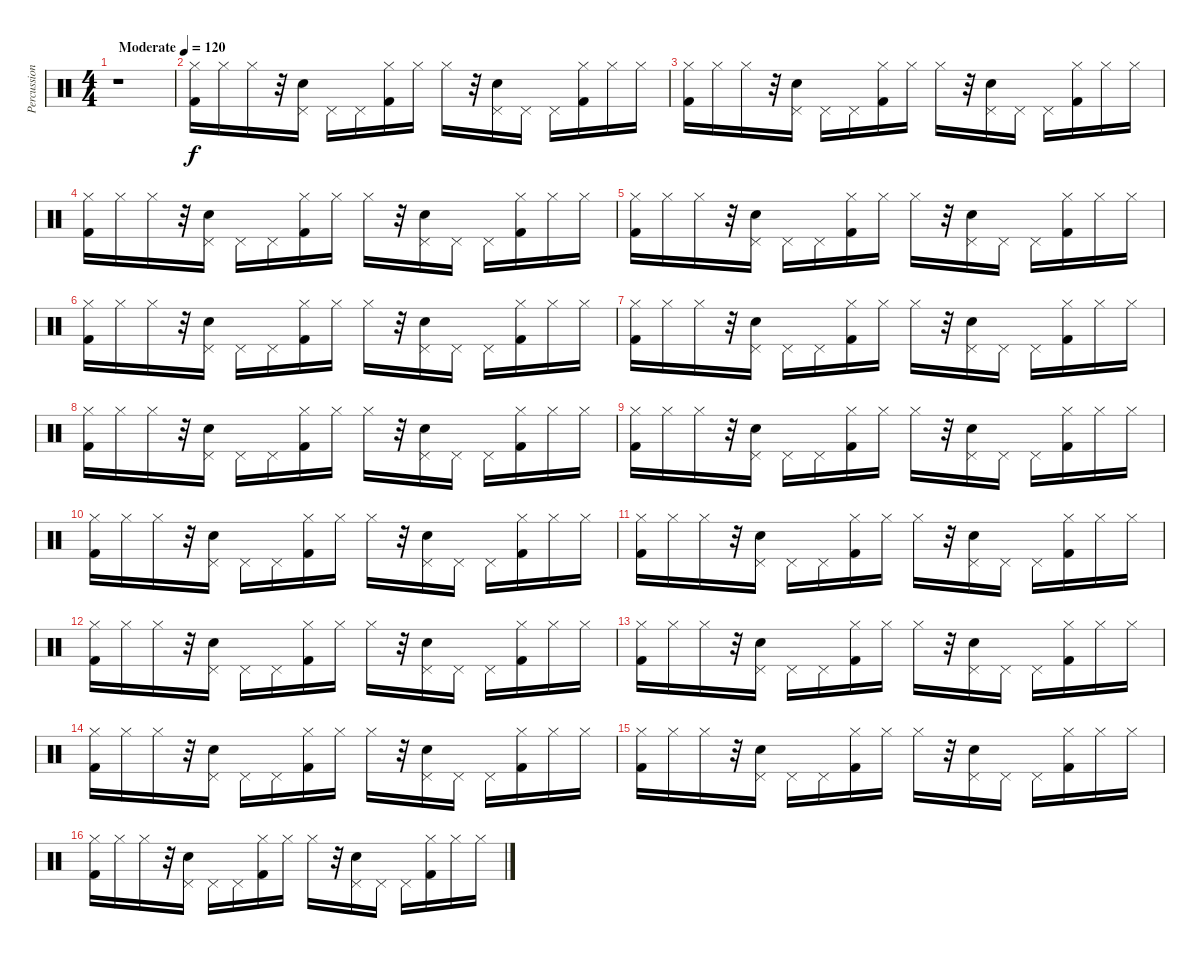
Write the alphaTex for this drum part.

\track ("Percussioni" "Percussion") {instrument percussion}
\staff {score}
\articulation defaults
\ts (4 4)
\tempo (120 "Moderate")
\clef neutral
\ks c
r.1{dy f} |
("Hi-Hat (closed)" "Kick (hit) 2").16 "Hi-Hat (closed)".16 "Hi-Hat (closed)".16 r.32 ("Pedal Hi-Hat (hit)" "Electric Snare (hit)").16 "Pedal Hi-Hat (hit)".16 "Pedal Hi-Hat (hit)".16 ("Hi-Hat (closed)" "Kick (hit) 2").16 "Hi-Hat (closed)".16 "Hi-Hat (closed)".16 r.32 ("Pedal Hi-Hat (hit)" "Electric Snare (hit)").16 "Pedal Hi-Hat (hit)".16 "Pedal Hi-Hat (hit)".16 ("Hi-Hat (closed)" "Kick (hit) 2").16 "Hi-Hat (closed)".16 "Hi-Hat (closed)".16 |
("Hi-Hat (closed)" "Kick (hit) 2").16 "Hi-Hat (closed)".16 "Hi-Hat (closed)".16 r.32 ("Pedal Hi-Hat (hit)" "Electric Snare (hit)").16 "Pedal Hi-Hat (hit)".16 "Pedal Hi-Hat (hit)".16 ("Hi-Hat (closed)" "Kick (hit) 2").16 "Hi-Hat (closed)".16 "Hi-Hat (closed)".16 r.32 ("Pedal Hi-Hat (hit)" "Electric Snare (hit)").16 "Pedal Hi-Hat (hit)".16 "Pedal Hi-Hat (hit)".16 ("Hi-Hat (closed)" "Kick (hit) 2").16 "Hi-Hat (closed)".16 "Hi-Hat (closed)".16 |
("Hi-Hat (closed)" "Kick (hit) 2").16 "Hi-Hat (closed)".16 "Hi-Hat (closed)".16 r.32 ("Pedal Hi-Hat (hit)" "Electric Snare (hit)").16 "Pedal Hi-Hat (hit)".16 "Pedal Hi-Hat (hit)".16 ("Hi-Hat (closed)" "Kick (hit) 2").16 "Hi-Hat (closed)".16 "Hi-Hat (closed)".16 r.32 ("Pedal Hi-Hat (hit)" "Electric Snare (hit)").16 "Pedal Hi-Hat (hit)".16 "Pedal Hi-Hat (hit)".16 ("Hi-Hat (closed)" "Kick (hit) 2").16 "Hi-Hat (closed)".16 "Hi-Hat (closed)".16 |
("Hi-Hat (closed)" "Kick (hit) 2").16 "Hi-Hat (closed)".16 "Hi-Hat (closed)".16 r.32 ("Pedal Hi-Hat (hit)" "Electric Snare (hit)").16 "Pedal Hi-Hat (hit)".16 "Pedal Hi-Hat (hit)".16 ("Hi-Hat (closed)" "Kick (hit) 2").16 "Hi-Hat (closed)".16 "Hi-Hat (closed)".16 r.32 ("Pedal Hi-Hat (hit)" "Electric Snare (hit)").16 "Pedal Hi-Hat (hit)".16 "Pedal Hi-Hat (hit)".16 ("Hi-Hat (closed)" "Kick (hit) 2").16 "Hi-Hat (closed)".16 "Hi-Hat (closed)".16 |
("Hi-Hat (closed)" "Kick (hit) 2").16 "Hi-Hat (closed)".16 "Hi-Hat (closed)".16 r.32 ("Pedal Hi-Hat (hit)" "Electric Snare (hit)").16 "Pedal Hi-Hat (hit)".16 "Pedal Hi-Hat (hit)".16 ("Hi-Hat (closed)" "Kick (hit) 2").16 "Hi-Hat (closed)".16 "Hi-Hat (closed)".16 r.32 ("Pedal Hi-Hat (hit)" "Electric Snare (hit)").16 "Pedal Hi-Hat (hit)".16 "Pedal Hi-Hat (hit)".16 ("Hi-Hat (closed)" "Kick (hit) 2").16 "Hi-Hat (closed)".16 "Hi-Hat (closed)".16 |
("Hi-Hat (closed)" "Kick (hit) 2").16 "Hi-Hat (closed)".16 "Hi-Hat (closed)".16 r.32 ("Pedal Hi-Hat (hit)" "Electric Snare (hit)").16 "Pedal Hi-Hat (hit)".16 "Pedal Hi-Hat (hit)".16 ("Hi-Hat (closed)" "Kick (hit) 2").16 "Hi-Hat (closed)".16 "Hi-Hat (closed)".16 r.32 ("Pedal Hi-Hat (hit)" "Electric Snare (hit)").16 "Pedal Hi-Hat (hit)".16 "Pedal Hi-Hat (hit)".16 ("Hi-Hat (closed)" "Kick (hit) 2").16 "Hi-Hat (closed)".16 "Hi-Hat (closed)".16 |
("Hi-Hat (closed)" "Kick (hit) 2").16 "Hi-Hat (closed)".16 "Hi-Hat (closed)".16 r.32 ("Pedal Hi-Hat (hit)" "Electric Snare (hit)").16 "Pedal Hi-Hat (hit)".16 "Pedal Hi-Hat (hit)".16 ("Hi-Hat (closed)" "Kick (hit) 2").16 "Hi-Hat (closed)".16 "Hi-Hat (closed)".16 r.32 ("Pedal Hi-Hat (hit)" "Electric Snare (hit)").16 "Pedal Hi-Hat (hit)".16 "Pedal Hi-Hat (hit)".16 ("Hi-Hat (closed)" "Kick (hit) 2").16 "Hi-Hat (closed)".16 "Hi-Hat (closed)".16 |
("Hi-Hat (closed)" "Kick (hit) 2").16 "Hi-Hat (closed)".16 "Hi-Hat (closed)".16 r.32 ("Pedal Hi-Hat (hit)" "Electric Snare (hit)").16 "Pedal Hi-Hat (hit)".16 "Pedal Hi-Hat (hit)".16 ("Hi-Hat (closed)" "Kick (hit) 2").16 "Hi-Hat (closed)".16 "Hi-Hat (closed)".16 r.32 ("Pedal Hi-Hat (hit)" "Electric Snare (hit)").16 "Pedal Hi-Hat (hit)".16 "Pedal Hi-Hat (hit)".16 ("Hi-Hat (closed)" "Kick (hit) 2").16 "Hi-Hat (closed)".16 "Hi-Hat (closed)".16 |
("Hi-Hat (closed)" "Kick (hit) 2").16 "Hi-Hat (closed)".16 "Hi-Hat (closed)".16 r.32 ("Pedal Hi-Hat (hit)" "Electric Snare (hit)").16 "Pedal Hi-Hat (hit)".16 "Pedal Hi-Hat (hit)".16 ("Hi-Hat (closed)" "Kick (hit) 2").16 "Hi-Hat (closed)".16 "Hi-Hat (closed)".16 r.32 ("Pedal Hi-Hat (hit)" "Electric Snare (hit)").16 "Pedal Hi-Hat (hit)".16 "Pedal Hi-Hat (hit)".16 ("Hi-Hat (closed)" "Kick (hit) 2").16 "Hi-Hat (closed)".16 "Hi-Hat (closed)".16 |
("Hi-Hat (closed)" "Kick (hit) 2").16 "Hi-Hat (closed)".16 "Hi-Hat (closed)".16 r.32 ("Pedal Hi-Hat (hit)" "Electric Snare (hit)").16 "Pedal Hi-Hat (hit)".16 "Pedal Hi-Hat (hit)".16 ("Hi-Hat (closed)" "Kick (hit) 2").16 "Hi-Hat (closed)".16 "Hi-Hat (closed)".16 r.32 ("Pedal Hi-Hat (hit)" "Electric Snare (hit)").16 "Pedal Hi-Hat (hit)".16 "Pedal Hi-Hat (hit)".16 ("Hi-Hat (closed)" "Kick (hit) 2").16 "Hi-Hat (closed)".16 "Hi-Hat (closed)".16 |
("Hi-Hat (closed)" "Kick (hit) 2").16 "Hi-Hat (closed)".16 "Hi-Hat (closed)".16 r.32 ("Pedal Hi-Hat (hit)" "Electric Snare (hit)").16 "Pedal Hi-Hat (hit)".16 "Pedal Hi-Hat (hit)".16 ("Hi-Hat (closed)" "Kick (hit) 2").16 "Hi-Hat (closed)".16 "Hi-Hat (closed)".16 r.32 ("Pedal Hi-Hat (hit)" "Electric Snare (hit)").16 "Pedal Hi-Hat (hit)".16 "Pedal Hi-Hat (hit)".16 ("Hi-Hat (closed)" "Kick (hit) 2").16 "Hi-Hat (closed)".16 "Hi-Hat (closed)".16 |
("Hi-Hat (closed)" "Kick (hit) 2").16 "Hi-Hat (closed)".16 "Hi-Hat (closed)".16 r.32 ("Pedal Hi-Hat (hit)" "Electric Snare (hit)").16 "Pedal Hi-Hat (hit)".16 "Pedal Hi-Hat (hit)".16 ("Hi-Hat (closed)" "Kick (hit) 2").16 "Hi-Hat (closed)".16 "Hi-Hat (closed)".16 r.32 ("Pedal Hi-Hat (hit)" "Electric Snare (hit)").16 "Pedal Hi-Hat (hit)".16 "Pedal Hi-Hat (hit)".16 ("Hi-Hat (closed)" "Kick (hit) 2").16 "Hi-Hat (closed)".16 "Hi-Hat (closed)".16 |
("Hi-Hat (closed)" "Kick (hit) 2").16 "Hi-Hat (closed)".16 "Hi-Hat (closed)".16 r.32 ("Pedal Hi-Hat (hit)" "Electric Snare (hit)").16 "Pedal Hi-Hat (hit)".16 "Pedal Hi-Hat (hit)".16 ("Hi-Hat (closed)" "Kick (hit) 2").16 "Hi-Hat (closed)".16 "Hi-Hat (closed)".16 r.32 ("Pedal Hi-Hat (hit)" "Electric Snare (hit)").16 "Pedal Hi-Hat (hit)".16 "Pedal Hi-Hat (hit)".16 ("Hi-Hat (closed)" "Kick (hit) 2").16 "Hi-Hat (closed)".16 "Hi-Hat (closed)".16 |
("Hi-Hat (closed)" "Kick (hit) 2").16 "Hi-Hat (closed)".16 "Hi-Hat (closed)".16 r.32 ("Pedal Hi-Hat (hit)" "Electric Snare (hit)").16 "Pedal Hi-Hat (hit)".16 "Pedal Hi-Hat (hit)".16 ("Hi-Hat (closed)" "Kick (hit) 2").16 "Hi-Hat (closed)".16 "Hi-Hat (closed)".16 r.32 ("Pedal Hi-Hat (hit)" "Electric Snare (hit)").16 "Pedal Hi-Hat (hit)".16 "Pedal Hi-Hat (hit)".16 ("Hi-Hat (closed)" "Kick (hit) 2").16 "Hi-Hat (closed)".16 "Hi-Hat (closed)".16 |
("Hi-Hat (closed)" "Kick (hit) 2").16 "Hi-Hat (closed)".16 "Hi-Hat (closed)".16 r.32 ("Pedal Hi-Hat (hit)" "Electric Snare (hit)").16 "Pedal Hi-Hat (hit)".16 "Pedal Hi-Hat (hit)".16 ("Hi-Hat (closed)" "Kick (hit) 2").16 "Hi-Hat (closed)".16 "Hi-Hat (closed)".16 r.32 ("Pedal Hi-Hat (hit)" "Electric Snare (hit)").16 "Pedal Hi-Hat (hit)".16 "Pedal Hi-Hat (hit)".16 ("Hi-Hat (closed)" "Kick (hit) 2").16 "Hi-Hat (closed)".16 "Hi-Hat (closed)".16
